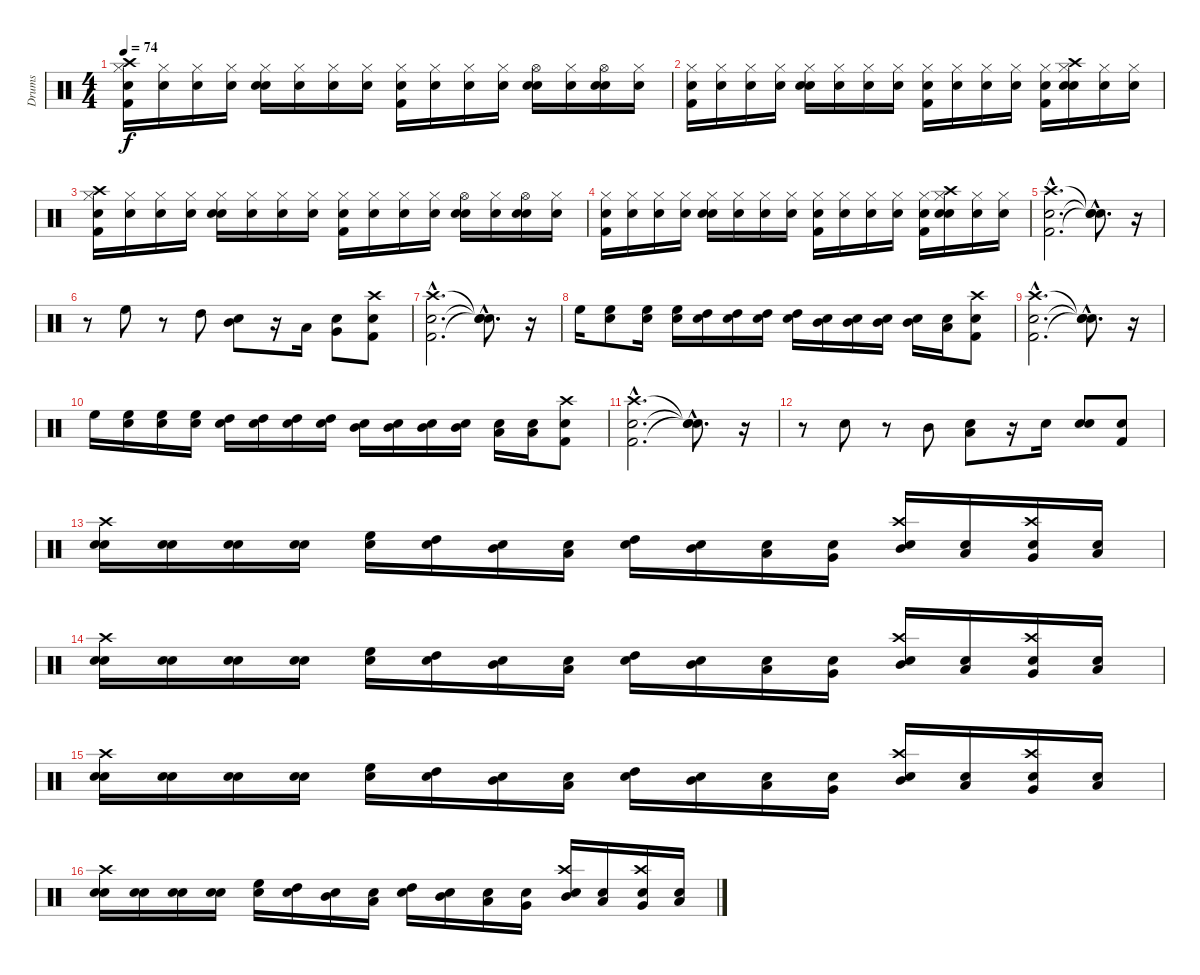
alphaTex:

\track ("Drums" "Drums") {instrument percussion}
\staff {score}
\articulation defaults
\ts (4 4)
\tempo 74
\clef neutral
\ks c
("Snare (hit)" "Kick (hit) 2" "Hi-Hat (closed)" "Crash high (hit)").16{dy f} ("Snare (hit)" "Hi-Hat (closed)").16 ("Snare (hit)" "Hi-Hat (closed)").16 ("Snare (hit)" "Hi-Hat (closed)").16 ("Snare (hit)" "Snare (hit) 2" "Hi-Hat (closed)").16 ("Snare (hit)" "Hi-Hat (closed)").16 ("Snare (hit)" "Hi-Hat (closed)").16 ("Snare (hit)" "Hi-Hat (closed)").16 ("Snare (hit)" "Kick (hit) 2" "Hi-Hat (closed)").16 ("Snare (hit)" "Hi-Hat (closed)").16 ("Snare (hit)" "Hi-Hat (closed)").16 ("Snare (hit)" "Hi-Hat (closed)").16 ("Snare (hit)" "Snare (hit) 2" "Hi-Hat (open)").16 ("Snare (hit)" "Hi-Hat (closed)").16 ("Snare (hit)" "Snare (hit) 2" "Hi-Hat (open)").16 ("Snare (hit)" "Hi-Hat (closed)").16 |
("Snare (hit)" "Kick (hit) 2" "Hi-Hat (closed)").16 ("Snare (hit)" "Hi-Hat (closed)").16 ("Snare (hit)" "Hi-Hat (closed)").16 ("Snare (hit)" "Hi-Hat (closed)").16 ("Snare (hit)" "Snare (hit) 2" "Hi-Hat (closed)").16 ("Snare (hit)" "Hi-Hat (closed)").16 ("Snare (hit)" "Hi-Hat (closed)").16 ("Snare (hit)" "Hi-Hat (closed)").16 ("Snare (hit)" "Kick (hit) 2" "Hi-Hat (closed)").16 ("Snare (hit)" "Hi-Hat (closed)").16 ("Snare (hit)" "Hi-Hat (closed)").16 ("Snare (hit)" "Hi-Hat (closed)").16 ("Snare (hit)" "Kick (hit) 2" "Hi-Hat (closed)").16 ("Snare (hit)" "Snare (hit) 2" "Hi-Hat (closed)" "Crash high (hit)").16 ("Snare (hit)" "Hi-Hat (closed)").16 ("Snare (hit)" "Hi-Hat (closed)").16 |
("Snare (hit)" "Kick (hit) 2" "Hi-Hat (closed)" "Crash high (hit)").16 ("Snare (hit)" "Hi-Hat (closed)").16 ("Snare (hit)" "Hi-Hat (closed)").16 ("Snare (hit)" "Hi-Hat (closed)").16 ("Snare (hit)" "Snare (hit) 2" "Hi-Hat (closed)").16 ("Snare (hit)" "Hi-Hat (closed)").16 ("Snare (hit)" "Hi-Hat (closed)").16 ("Snare (hit)" "Hi-Hat (closed)").16 ("Snare (hit)" "Kick (hit) 2" "Hi-Hat (closed)").16 ("Snare (hit)" "Hi-Hat (closed)").16 ("Snare (hit)" "Hi-Hat (closed)").16 ("Snare (hit)" "Hi-Hat (closed)").16 ("Snare (hit)" "Snare (hit) 2" "Hi-Hat (open)").16 ("Snare (hit)" "Hi-Hat (closed)").16 ("Snare (hit)" "Snare (hit) 2" "Hi-Hat (open)").16 ("Snare (hit)" "Hi-Hat (closed)").16 |
("Snare (hit)" "Kick (hit) 2" "Hi-Hat (closed)").16 ("Snare (hit)" "Hi-Hat (closed)").16 ("Snare (hit)" "Hi-Hat (closed)").16 ("Snare (hit)" "Hi-Hat (closed)").16 ("Snare (hit)" "Snare (hit) 2" "Hi-Hat (closed)").16 ("Snare (hit)" "Hi-Hat (closed)").16 ("Snare (hit)" "Hi-Hat (closed)").16 ("Snare (hit)" "Hi-Hat (closed)").16 ("Snare (hit)" "Kick (hit) 2" "Hi-Hat (closed)").16 ("Snare (hit)" "Hi-Hat (closed)").16 ("Snare (hit)" "Hi-Hat (closed)").16 ("Snare (hit)" "Hi-Hat (closed)").16 ("Snare (hit)" "Kick (hit) 2" "Hi-Hat (closed)").16 ("Snare (hit)" "Snare (hit) 2" "Hi-Hat (closed)" "Crash high (hit)").16 ("Snare (hit)" "Hi-Hat (closed)").16 ("Snare (hit)" "Hi-Hat (closed)").16 |
("Snare (hit)"{hac} "Kick (hit) 2"{hac} "Crash high (hit)"{hac}).2{d} ("Snare (hit)"{hac t} "Snare (hit)"{hac t} "Snare (hit)"{hac t}).8{d} r.16 |
r.8 "High Floor Tom (hit)".8 r.8 "High Tom (hit)".8 ("Snare (hit)" "Mid Tom (hit)").8 r.16 "Low Tom (hit)".16 ("Snare (hit)" "Very Low Tom (hit)").8 ("Snare (hit)" "Kick (hit) 2" "Crash high (hit)").8 |
("Snare (hit)"{hac} "Kick (hit) 2"{hac} "Crash high (hit)"{hac}).2{d} ("Snare (hit)"{hac t} "Snare (hit)"{hac t} "Snare (hit)"{hac t}).8{d} r.16 |
"High Floor Tom (hit)".16 ("Snare (hit)" "High Floor Tom (hit)").8 ("Snare (hit)" "High Floor Tom (hit)").16 ("Snare (hit)" "High Floor Tom (hit)").16 ("Snare (hit)" "High Tom (hit)").16 ("Snare (hit)" "High Tom (hit)").16 ("Snare (hit)" "High Tom (hit)").16 ("Snare (hit)" "High Tom (hit)").16 ("Snare (hit)" "Mid Tom (hit)").16 ("Snare (hit)" "Mid Tom (hit)").16 ("Snare (hit)" "Mid Tom (hit)").16 ("Snare (hit)" "Mid Tom (hit)").16 ("Snare (hit)" "Low Tom (hit)").16 ("Snare (hit)" "Kick (hit) 2" "Crash high (hit)").8 |
("Snare (hit)"{hac} "Kick (hit) 2"{hac} "Crash high (hit)"{hac}).2{d} ("Snare (hit)"{hac t} "Snare (hit)"{hac t} "Snare (hit)"{hac t}).8{d} r.16 |
"High Floor Tom (hit)".16 ("Snare (hit)" "High Floor Tom (hit)").16 ("Snare (hit)" "High Floor Tom (hit)").16 ("Snare (hit)" "High Floor Tom (hit)").16 ("Snare (hit)" "High Tom (hit)").16 ("Snare (hit)" "High Tom (hit)").16 ("Snare (hit)" "High Tom (hit)").16 ("Snare (hit)" "High Tom (hit)").16 ("Snare (hit)" "Mid Tom (hit)").16 ("Snare (hit)" "Mid Tom (hit)").16 ("Snare (hit)" "Mid Tom (hit)").16 ("Snare (hit)" "Mid Tom (hit)").16 ("Snare (hit)" "Low Tom (hit)").16 ("Snare (hit)" "Low Tom (hit)").16 ("Snare (hit)" "Kick (hit) 2" "Crash high (hit)").8 |
("Snare (hit)"{hac} "Kick (hit) 2"{hac} "Crash high (hit)"{hac}).2{d} ("Snare (hit)"{hac t} "Snare (hit)"{hac t} "Snare (hit)"{hac t}).8{d} r.16 |
r.8 "Snare (hit) 2".8 r.8 "Mid Tom (hit)".8 ("Snare (hit)" "Low Tom (hit)").8 r.16 "Snare (hit) 2".16 ("Snare (hit)" "Snare (hit) 2").8 ("Snare (hit)" "Kick (hit) 2").8 |
("Snare (hit)" "Snare (hit) 2" "Crash high (hit)").16 ("Snare (hit)" "Snare (hit) 2").16 ("Snare (hit)" "Snare (hit) 2").16 ("Snare (hit)" "Snare (hit) 2").16 ("Snare (hit)" "High Floor Tom (hit)").16 ("Snare (hit)" "High Tom (hit)").16 ("Snare (hit)" "Mid Tom (hit)").16 ("Snare (hit)" "Low Tom (hit)").16 ("Snare (hit)" "High Tom (hit)").16 ("Snare (hit)" "Mid Tom (hit)").16 ("Snare (hit)" "Low Tom (hit)").16 ("Snare (hit)" "Very Low Tom (hit)").16 ("Snare (hit)" "Mid Tom (hit)" "Crash high (hit)").16 ("Snare (hit)" "Low Tom (hit)").16 ("Snare (hit)" "Very Low Tom (hit)" "Crash high (hit)").16 ("Snare (hit)" "Low Floor Tom (hit)").16 |
("Snare (hit)" "Snare (hit) 2" "Crash high (hit)").16 ("Snare (hit)" "Snare (hit) 2").16 ("Snare (hit)" "Snare (hit) 2").16 ("Snare (hit)" "Snare (hit) 2").16 ("Snare (hit)" "High Floor Tom (hit)").16 ("Snare (hit)" "High Tom (hit)").16 ("Snare (hit)" "Mid Tom (hit)").16 ("Snare (hit)" "Low Tom (hit)").16 ("Snare (hit)" "High Tom (hit)").16 ("Snare (hit)" "Mid Tom (hit)").16 ("Snare (hit)" "Low Tom (hit)").16 ("Snare (hit)" "Very Low Tom (hit)").16 ("Snare (hit)" "Mid Tom (hit)" "Crash high (hit)").16 ("Snare (hit)" "Low Tom (hit)").16 ("Snare (hit)" "Very Low Tom (hit)" "Crash high (hit)").16 ("Snare (hit)" "Low Floor Tom (hit)").16 |
("Snare (hit)" "Snare (hit) 2" "Crash high (hit)").16 ("Snare (hit)" "Snare (hit) 2").16 ("Snare (hit)" "Snare (hit) 2").16 ("Snare (hit)" "Snare (hit) 2").16 ("Snare (hit)" "High Floor Tom (hit)").16 ("Snare (hit)" "High Tom (hit)").16 ("Snare (hit)" "Mid Tom (hit)").16 ("Snare (hit)" "Low Tom (hit)").16 ("Snare (hit)" "High Tom (hit)").16 ("Snare (hit)" "Mid Tom (hit)").16 ("Snare (hit)" "Low Tom (hit)").16 ("Snare (hit)" "Very Low Tom (hit)").16 ("Snare (hit)" "Mid Tom (hit)" "Crash high (hit)").16 ("Snare (hit)" "Low Tom (hit)").16 ("Snare (hit)" "Very Low Tom (hit)" "Crash high (hit)").16 ("Snare (hit)" "Low Floor Tom (hit)").16 |
("Snare (hit)" "Snare (hit) 2" "Crash high (hit)").16 ("Snare (hit)" "Snare (hit) 2").16 ("Snare (hit)" "Snare (hit) 2").16 ("Snare (hit)" "Snare (hit) 2").16 ("Snare (hit)" "High Floor Tom (hit)").16 ("Snare (hit)" "High Tom (hit)").16 ("Snare (hit)" "Mid Tom (hit)").16 ("Snare (hit)" "Low Tom (hit)").16 ("Snare (hit)" "High Tom (hit)").16 ("Snare (hit)" "Mid Tom (hit)").16 ("Snare (hit)" "Low Tom (hit)").16 ("Snare (hit)" "Very Low Tom (hit)").16 ("Snare (hit)" "Mid Tom (hit)" "Crash high (hit)").16 ("Snare (hit)" "Low Tom (hit)").16 ("Snare (hit)" "Very Low Tom (hit)" "Crash high (hit)").16 ("Snare (hit)" "Low Floor Tom (hit)").16
